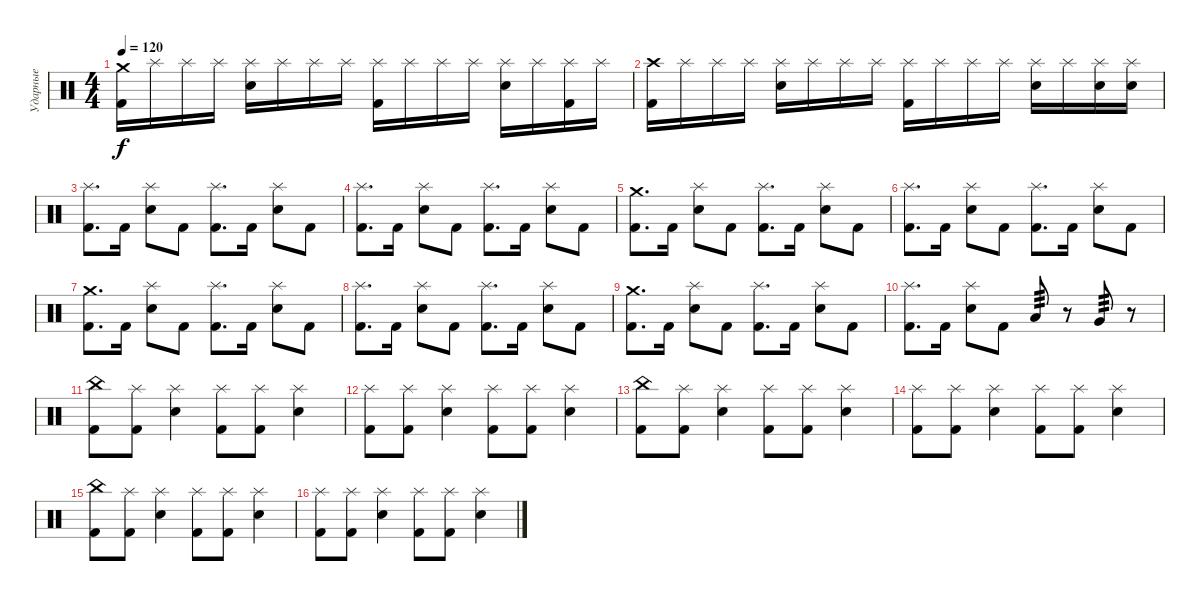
\track ("Ударные" "Ударные") {instrument percussion}
\staff {score}
\articulation defaults
\ts (4 4)
\tempo 120
\clef neutral
\ks c
("Crash medium (hit)" "Kick (hit) 2").16{dy f} "Splash (hit)".16 "Splash (hit)".16 "Splash (hit)".16 ("Splash (hit)" "Electric Snare (hit)").16 "Splash (hit)".16 "Splash (hit)".16 "Splash (hit)".16 ("Splash (hit)" "Kick (hit) 2").16 "Splash (hit)".16 "Splash (hit)".16 "Splash (hit)".16 ("Splash (hit)" "Electric Snare (hit)").16 "Splash (hit)".16 ("Splash (hit)" "Kick (hit) 2").16 "Splash (hit)".16 |
("Crash high (hit)" "Kick (hit) 2").16 "Splash (hit)".16 "Splash (hit)".16 "Splash (hit)".16 ("Splash (hit)" "Electric Snare (hit)").16 "Splash (hit)".16 "Splash (hit)".16 "Splash (hit)".16 ("Splash (hit)" "Kick (hit) 2").16 "Splash (hit)".16 "Splash (hit)".16 "Splash (hit)".16 ("Splash (hit)" "Electric Snare (hit)").16 "Splash (hit)".16 ("Splash (hit)" "Electric Snare (hit)").16 ("Splash (hit)" "Electric Snare (hit)").16 |
("Splash (hit)" "Kick (hit) 2").8{d} "Kick (hit) 2".16 ("Splash (hit)" "Electric Snare (hit)").8 "Kick (hit) 2".8 ("Splash (hit)" "Kick (hit) 2").8{d} "Kick (hit) 2".16 ("Splash (hit)" "Electric Snare (hit)").8 "Kick (hit) 2".8 |
("Splash (hit)" "Kick (hit) 2").8{d} "Kick (hit) 2".16 ("Splash (hit)" "Electric Snare (hit)").8 "Kick (hit) 2".8 ("Splash (hit)" "Kick (hit) 2").8{d} "Kick (hit) 2".16 ("Splash (hit)" "Electric Snare (hit)").8 "Kick (hit) 2".8 |
("Crash medium (hit)" "Kick (hit) 2").8{d} "Kick (hit) 2".16 ("Splash (hit)" "Electric Snare (hit)").8 "Kick (hit) 2".8 ("Splash (hit)" "Kick (hit) 2").8{d} "Kick (hit) 2".16 ("Splash (hit)" "Electric Snare (hit)").8 "Kick (hit) 2".8 |
("Splash (hit)" "Kick (hit) 2").8{d} "Kick (hit) 2".16 ("Splash (hit)" "Electric Snare (hit)").8 "Kick (hit) 2".8 ("Splash (hit)" "Kick (hit) 2").8{d} "Kick (hit) 2".16 ("Splash (hit)" "Electric Snare (hit)").8 "Kick (hit) 2".8 |
("Crash medium (hit)" "Kick (hit) 2").8{d} "Kick (hit) 2".16 ("Splash (hit)" "Electric Snare (hit)").8 "Kick (hit) 2".8 ("Splash (hit)" "Kick (hit) 2").8{d} "Kick (hit) 2".16 ("Splash (hit)" "Electric Snare (hit)").8 "Kick (hit) 2".8 |
("Splash (hit)" "Kick (hit) 2").8{d} "Kick (hit) 2".16 ("Splash (hit)" "Electric Snare (hit)").8 "Kick (hit) 2".8 ("Splash (hit)" "Kick (hit) 2").8{d} "Kick (hit) 2".16 ("Splash (hit)" "Electric Snare (hit)").8 "Kick (hit) 2".8 |
("Crash medium (hit)" "Kick (hit) 2").8{d} "Kick (hit) 2".16 ("Splash (hit)" "Electric Snare (hit)").8 "Kick (hit) 2".8 ("Splash (hit)" "Kick (hit) 2").8{d} "Kick (hit) 2".16 ("Splash (hit)" "Electric Snare (hit)").8 "Kick (hit) 2".8 |
("Splash (hit)" "Kick (hit) 2").8{d} "Kick (hit) 2".16 ("Splash (hit)" "Electric Snare (hit)").8 "Kick (hit) 2".8 "Low Tom (hit)".8{tp 3} r.8 "Very Low Tom (hit)".8{tp 3} r.8 |
("China (hit)" "Kick (hit) 2").8 ("Splash (hit)" "Kick (hit) 2").8 ("Splash (hit)" "Electric Snare (hit)").4 ("Splash (hit)" "Kick (hit) 2").8 ("Splash (hit)" "Kick (hit) 2").8 ("Splash (hit)" "Electric Snare (hit)").4 |
("Splash (hit)" "Kick (hit) 2").8 ("Splash (hit)" "Kick (hit) 2").8 ("Splash (hit)" "Electric Snare (hit)").4 ("Splash (hit)" "Kick (hit) 2").8 ("Splash (hit)" "Kick (hit) 2").8 ("Splash (hit)" "Electric Snare (hit)").4 |
("China (hit)" "Kick (hit) 2").8 ("Splash (hit)" "Kick (hit) 2").8 ("Splash (hit)" "Electric Snare (hit)").4 ("Splash (hit)" "Kick (hit) 2").8 ("Splash (hit)" "Kick (hit) 2").8 ("Splash (hit)" "Electric Snare (hit)").4 |
("Splash (hit)" "Kick (hit) 2").8 ("Splash (hit)" "Kick (hit) 2").8 ("Splash (hit)" "Electric Snare (hit)").4 ("Splash (hit)" "Kick (hit) 2").8 ("Splash (hit)" "Kick (hit) 2").8 ("Splash (hit)" "Electric Snare (hit)").4 |
("China (hit)" "Kick (hit) 2").8 ("Splash (hit)" "Kick (hit) 2").8 ("Splash (hit)" "Electric Snare (hit)").4 ("Splash (hit)" "Kick (hit) 2").8 ("Splash (hit)" "Kick (hit) 2").8 ("Splash (hit)" "Electric Snare (hit)").4 |
("Splash (hit)" "Kick (hit) 2").8 ("Splash (hit)" "Kick (hit) 2").8 ("Splash (hit)" "Electric Snare (hit)").4 ("Splash (hit)" "Kick (hit) 2").8 ("Splash (hit)" "Kick (hit) 2").8 ("Splash (hit)" "Electric Snare (hit)").4
